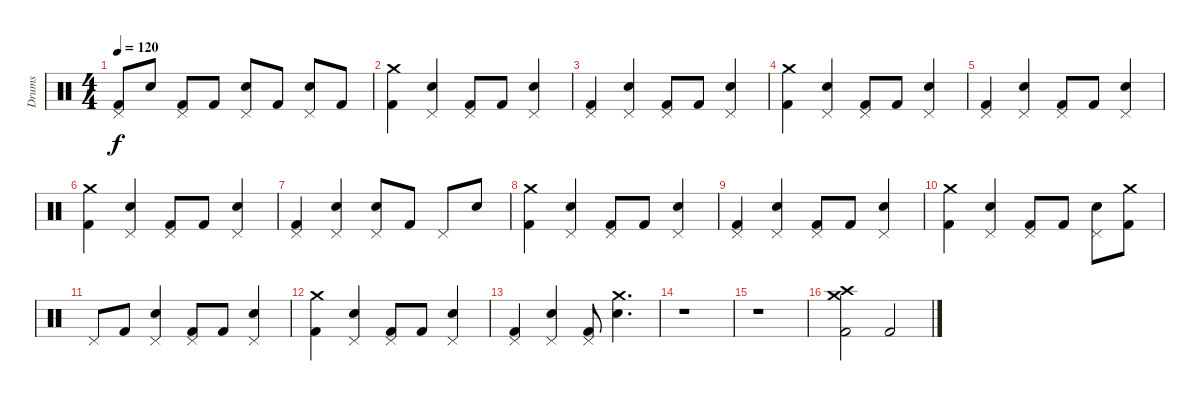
\track ("Drums" "Drums") {instrument percussion}
\staff {score}
\articulation defaults
\ts (4 4)
\tempo 120
\clef neutral
\ks c
("Pedal Hi-Hat (hit)" "Kick (hit) 2").8{dy f} "Snare (hit) 2".8 ("Pedal Hi-Hat (hit)" "Kick (hit) 2").8 "Kick (hit) 2".8 ("Pedal Hi-Hat (hit)" "Snare (hit) 2").8 "Kick (hit) 2".8 ("Pedal Hi-Hat (hit)" "Snare (hit) 2").8 "Kick (hit) 2".8 |
("Crash medium (hit)" "Kick (hit) 2").4 ("Pedal Hi-Hat (hit)" "Snare (hit) 2").4 ("Kick (hit) 2" "Pedal Hi-Hat (hit)").8 "Kick (hit) 2".8 ("Pedal Hi-Hat (hit)" "Snare (hit) 2").4 |
("Pedal Hi-Hat (hit)" "Kick (hit) 2").4 ("Pedal Hi-Hat (hit)" "Snare (hit) 2").4 ("Kick (hit) 2" "Pedal Hi-Hat (hit)").8 "Kick (hit) 2".8 ("Pedal Hi-Hat (hit)" "Snare (hit) 2").4 |
("Crash medium (hit)" "Kick (hit) 2").4 ("Pedal Hi-Hat (hit)" "Snare (hit) 2").4 ("Kick (hit) 2" "Pedal Hi-Hat (hit)").8 "Kick (hit) 2".8 ("Pedal Hi-Hat (hit)" "Snare (hit) 2").4 |
("Pedal Hi-Hat (hit)" "Kick (hit) 2").4 ("Pedal Hi-Hat (hit)" "Snare (hit) 2").4 ("Pedal Hi-Hat (hit)" "Kick (hit) 2").8 "Kick (hit) 2".8 ("Pedal Hi-Hat (hit)" "Snare (hit) 2").4 |
("Kick (hit) 2" "Crash medium (hit)").4 ("Pedal Hi-Hat (hit)" "Snare (hit) 2").4 ("Pedal Hi-Hat (hit)" "Kick (hit) 2").8 "Kick (hit) 2".8 ("Pedal Hi-Hat (hit)" "Snare (hit) 2").4 |
("Pedal Hi-Hat (hit)" "Kick (hit) 2").4 ("Pedal Hi-Hat (hit)" "Snare (hit) 2").4 ("Pedal Hi-Hat (hit)" "Snare (hit) 2").8 "Kick (hit) 2".8 "Pedal Hi-Hat (hit)".8 "Snare (hit) 2".8 |
("Crash medium (hit)" "Kick (hit) 2").4 ("Pedal Hi-Hat (hit)" "Snare (hit) 2").4 ("Pedal Hi-Hat (hit)" "Kick (hit) 2").8 "Kick (hit) 2".8 ("Pedal Hi-Hat (hit)" "Snare (hit) 2").4 |
("Pedal Hi-Hat (hit)" "Kick (hit) 2").4 ("Pedal Hi-Hat (hit)" "Snare (hit) 2").4 ("Pedal Hi-Hat (hit)" "Kick (hit) 2").8 "Kick (hit) 2".8 ("Pedal Hi-Hat (hit)" "Snare (hit) 2").4 |
("Crash medium (hit)" "Kick (hit) 2").4 ("Pedal Hi-Hat (hit)" "Snare (hit) 2").4 ("Pedal Hi-Hat (hit)" "Kick (hit) 2").8 "Kick (hit) 2".8 ("Pedal Hi-Hat (hit)" "Snare (hit) 2").8 ("Crash medium (hit)" "Kick (hit) 2").8 |
"Pedal Hi-Hat (hit)".8 "Kick (hit) 2".8 ("Pedal Hi-Hat (hit)" "Snare (hit) 2").4 ("Pedal Hi-Hat (hit)" "Kick (hit) 2").8 "Kick (hit) 2".8 ("Pedal Hi-Hat (hit)" "Snare (hit) 2").4 |
("Kick (hit) 2" "Crash medium (hit)").4 ("Pedal Hi-Hat (hit)" "Snare (hit) 2").4 ("Pedal Hi-Hat (hit)" "Kick (hit) 2").8 "Kick (hit) 2".8 ("Pedal Hi-Hat (hit)" "Snare (hit) 2").4 |
("Pedal Hi-Hat (hit)" "Kick (hit) 2").4 ("Pedal Hi-Hat (hit)" "Snare (hit) 2").4 ("Pedal Hi-Hat (hit)" "Kick (hit) 2").8 ("Crash medium (hit)" "Snare (hit) 2").4{d} |
r.1 |
r.1 |
("Kick (hit) 2" "Crash high (hit)" "Crash medium (hit)").2 "Kick (hit) 2".2
